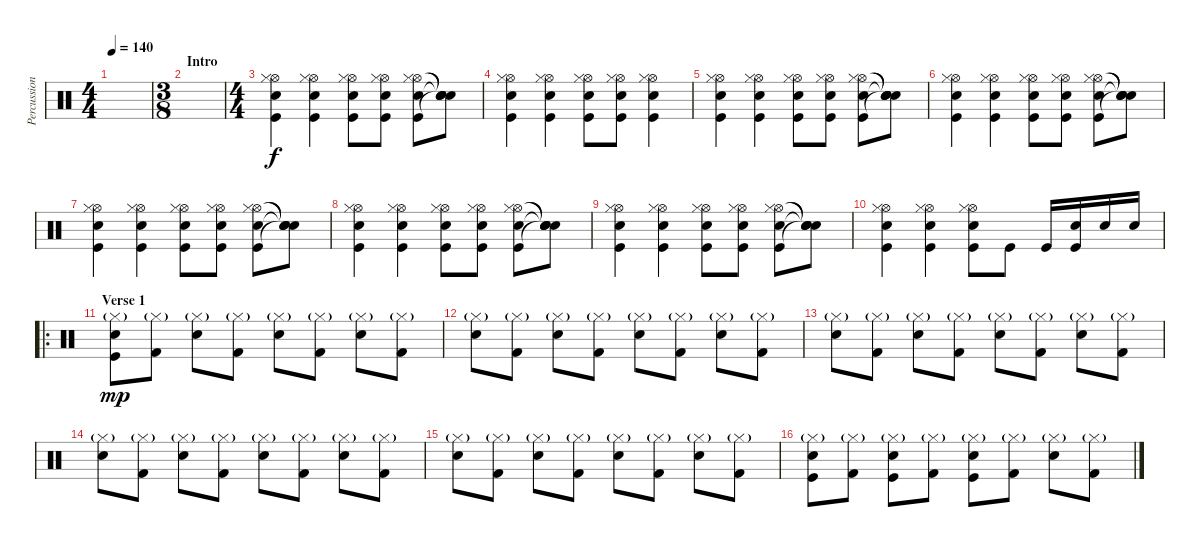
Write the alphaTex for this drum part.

\track ("Percussion" "Percussion") {instrument percussion}
\staff {score}
\articulation defaults
\ts (4 4)
\tempo 140
\clef neutral
\ks c
|
\ts (3 8)
\section ("" "Intro")
|
\ts (4 4)
("Hi-Hat (open)" "Hi-Hat (closed)" "Snare (hit) 2" "Kick (hit)").4 ("Hi-Hat (open)" "Hi-Hat (closed)" "Snare (hit) 2" "Kick (hit)").4 ("Hi-Hat (open)" "Hi-Hat (closed)" "Snare (hit) 2" "Kick (hit)").8 ("Hi-Hat (open)" "Hi-Hat (closed)" "Snare (hit) 2" "Kick (hit)").8 ("Hi-Hat (open)" "Hi-Hat (closed)" "Snare (hit) 2" "Kick (hit)").8 ("Snare (hit)"{t} "Snare (hit)"{t} "Snare (hit)"{t} "Snare (hit)"{t}).8 |
("Hi-Hat (open)" "Hi-Hat (closed)" "Electric Snare (hit)" "Kick (hit)").4 ("Hi-Hat (open)" "Hi-Hat (closed)" "Electric Snare (hit)" "Kick (hit)").4 ("Hi-Hat (open)" "Hi-Hat (closed)" "Snare (hit) 2" "Kick (hit)").8 ("Hi-Hat (open)" "Hi-Hat (closed)" "Snare (hit) 2" "Kick (hit)").8 ("Hi-Hat (open)" "Hi-Hat (closed)" "Snare (hit) 2" "Kick (hit)").4 |
("Hi-Hat (open)" "Hi-Hat (closed)" "Snare (hit) 2" "Kick (hit)").4 ("Hi-Hat (open)" "Hi-Hat (closed)" "Snare (hit) 2" "Kick (hit)").4 ("Hi-Hat (open)" "Hi-Hat (closed)" "Snare (hit) 2" "Kick (hit)").8 ("Hi-Hat (open)" "Hi-Hat (closed)" "Snare (hit) 2" "Kick (hit)").8 ("Hi-Hat (open)" "Hi-Hat (closed)" "Snare (hit) 2" "Kick (hit)").8 ("Snare (hit)"{t} "Snare (hit)"{t} "Snare (hit)"{t} "Snare (hit)"{t}).8 |
("Hi-Hat (open)" "Hi-Hat (closed)" "Snare (hit) 2" "Kick (hit)").4 ("Hi-Hat (open)" "Hi-Hat (closed)" "Snare (hit) 2" "Kick (hit)").4 ("Hi-Hat (open)" "Hi-Hat (closed)" "Snare (hit) 2" "Kick (hit)").8 ("Hi-Hat (open)" "Hi-Hat (closed)" "Snare (hit) 2" "Kick (hit)").8 ("Hi-Hat (open)" "Hi-Hat (closed)" "Snare (hit) 2" "Kick (hit)").8 ("Snare (hit)"{t} "Snare (hit)"{t} "Snare (hit)"{t} "Snare (hit)"{t}).8 |
("Hi-Hat (open)" "Hi-Hat (closed)" "Snare (hit) 2" "Kick (hit)").4 ("Hi-Hat (open)" "Hi-Hat (closed)" "Snare (hit) 2" "Kick (hit)").4 ("Hi-Hat (open)" "Hi-Hat (closed)" "Snare (hit) 2" "Kick (hit)").8 ("Hi-Hat (open)" "Hi-Hat (closed)" "Snare (hit) 2" "Kick (hit)").8 ("Hi-Hat (open)" "Hi-Hat (closed)" "Snare (hit) 2" "Kick (hit)").8 ("Snare (hit)"{t} "Snare (hit)"{t} "Snare (hit)"{t} "Snare (hit)"{t}).8 |
("Hi-Hat (open)" "Hi-Hat (closed)" "Snare (hit) 2" "Kick (hit)").4 ("Hi-Hat (open)" "Hi-Hat (closed)" "Snare (hit) 2" "Kick (hit)").4 ("Hi-Hat (open)" "Hi-Hat (closed)" "Snare (hit) 2" "Kick (hit)").8 ("Hi-Hat (open)" "Hi-Hat (closed)" "Snare (hit) 2" "Kick (hit)").8 ("Hi-Hat (open)" "Hi-Hat (closed)" "Snare (hit) 2" "Kick (hit)").8 ("Snare (hit)"{t} "Snare (hit)"{t} "Snare (hit)"{t} "Snare (hit)"{t}).8 |
("Hi-Hat (open)" "Hi-Hat (closed)" "Snare (hit) 2" "Kick (hit)").4 ("Hi-Hat (open)" "Hi-Hat (closed)" "Snare (hit) 2" "Kick (hit)").4 ("Hi-Hat (open)" "Hi-Hat (closed)" "Snare (hit) 2" "Kick (hit)").8 ("Hi-Hat (open)" "Hi-Hat (closed)" "Snare (hit) 2" "Kick (hit)").8 ("Hi-Hat (open)" "Hi-Hat (closed)" "Snare (hit) 2" "Kick (hit)").8 ("Snare (hit)"{t} "Snare (hit)"{t} "Snare (hit)"{t} "Snare (hit)"{t}).8 |
("Hi-Hat (open)" "Hi-Hat (closed)" "Snare (hit) 2" "Kick (hit)").4 ("Hi-Hat (open)" "Hi-Hat (closed)" "Snare (hit) 2" "Kick (hit)").4 ("Hi-Hat (open)" "Hi-Hat (closed)" "Snare (hit) 2" "Kick (hit)").8 "Kick (hit)".8 "Kick (hit)".16 ("Snare (hit) 2" "Kick (hit)").16 "Snare (hit) 2".16 "Snare (hit) 2".16 |
\ro
\section ("" "Verse 1")
("Hi-Hat (closed)"{g} "Snare (hit) 2" "Kick (hit)").8{dy mp} ("Hi-Hat (closed)"{g} "Kick (hit) 2").8 ("Hi-Hat (closed)"{g} "Snare (hit) 2").8 ("Hi-Hat (closed)"{g} "Kick (hit) 2").8 ("Hi-Hat (closed)"{g} "Snare (hit) 2").8 ("Hi-Hat (closed)"{g} "Kick (hit) 2").8 ("Hi-Hat (closed)"{g} "Snare (hit) 2").8 ("Hi-Hat (closed)"{g} "Kick (hit) 2").8 |
("Hi-Hat (closed)"{g} "Snare (hit) 2").8 ("Hi-Hat (closed)"{g} "Kick (hit) 2").8 ("Hi-Hat (closed)"{g} "Snare (hit) 2").8 ("Hi-Hat (closed)"{g} "Kick (hit) 2").8 ("Hi-Hat (closed)"{g} "Snare (hit) 2").8 ("Hi-Hat (closed)"{g} "Kick (hit) 2").8 ("Hi-Hat (closed)"{g} "Snare (hit) 2").8 ("Hi-Hat (closed)"{g} "Kick (hit) 2").8 |
("Hi-Hat (closed)"{g} "Snare (hit) 2").8 ("Hi-Hat (closed)"{g} "Kick (hit) 2").8 ("Hi-Hat (closed)"{g} "Snare (hit) 2").8 ("Hi-Hat (closed)"{g} "Kick (hit) 2").8 ("Hi-Hat (closed)"{g} "Snare (hit) 2").8 ("Hi-Hat (closed)"{g} "Kick (hit) 2").8 ("Hi-Hat (closed)"{g} "Snare (hit) 2").8 ("Hi-Hat (closed)"{g} "Kick (hit) 2").8 |
("Hi-Hat (closed)"{g} "Snare (hit) 2").8 ("Hi-Hat (closed)"{g} "Kick (hit) 2").8 ("Hi-Hat (closed)"{g} "Snare (hit) 2").8 ("Hi-Hat (closed)"{g} "Kick (hit) 2").8 ("Hi-Hat (closed)"{g} "Snare (hit) 2").8 ("Hi-Hat (closed)"{g} "Kick (hit) 2").8 ("Hi-Hat (closed)"{g} "Snare (hit) 2").8 ("Hi-Hat (closed)"{g} "Kick (hit) 2").8 |
("Hi-Hat (closed)"{g} "Snare (hit) 2").8 ("Hi-Hat (closed)"{g} "Kick (hit) 2").8 ("Hi-Hat (closed)"{g} "Snare (hit) 2").8 ("Hi-Hat (closed)"{g} "Kick (hit) 2").8 ("Hi-Hat (closed)"{g} "Snare (hit) 2").8 ("Hi-Hat (closed)"{g} "Kick (hit) 2").8 ("Hi-Hat (closed)"{g} "Snare (hit) 2").8 ("Hi-Hat (closed)"{g} "Kick (hit) 2").8 |
("Hi-Hat (closed)"{g} "Snare (hit) 2" "Kick (hit)").8 ("Hi-Hat (closed)"{g} "Kick (hit) 2").8 ("Hi-Hat (closed)"{g} "Snare (hit) 2" "Kick (hit)").8 ("Hi-Hat (closed)"{g} "Kick (hit) 2").8 ("Hi-Hat (closed)"{g} "Snare (hit) 2" "Kick (hit)").8 ("Hi-Hat (closed)"{g} "Kick (hit) 2").8 ("Hi-Hat (closed)"{g} "Snare (hit) 2").8 ("Hi-Hat (closed)"{g} "Kick (hit) 2").8
